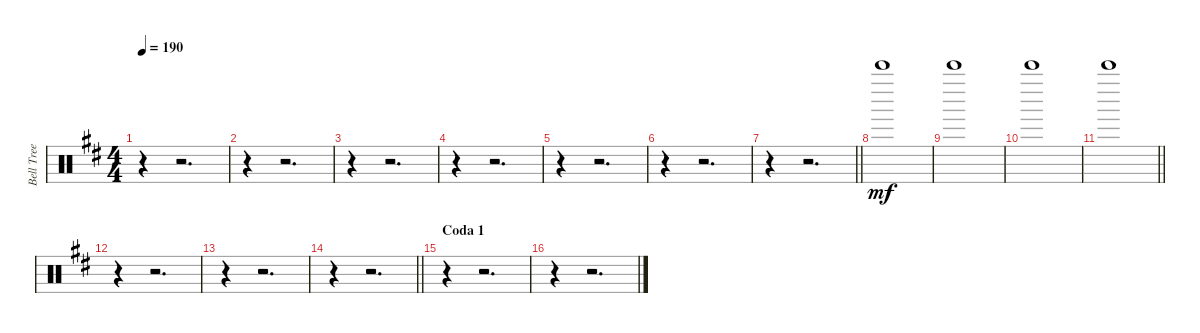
\track ("Bell Tree" "Bell Tree") {instrument percussion}
\staff {score}
\articulation defaults
\ts (4 4)
\tempo 190
\clef neutral
\ks d
r.4{dy mf} r.2{d} |
r.4 r.2{d} |
r.4 r.2{d} |
r.4 r.2{d} |
r.4 r.2{d} |
r.4 r.2{d} |
\barLineRight lightlight
r.4 r.2{d} |
\section ("" "")
"Bell Tree (hit)".1 |
"Bell Tree (hit)".1 |
"Bell Tree (hit)".1 |
\barLineRight lightlight "Bell Tree (hit)".1
|
\section ("" "")
r.4 r.2{d} |
r.4 r.2{d} |
\barLineRight lightlight
r.4 r.2{d} |
\section ("" "Coda 1")
r.4 r.2{d} |
r.4 r.2{d}
